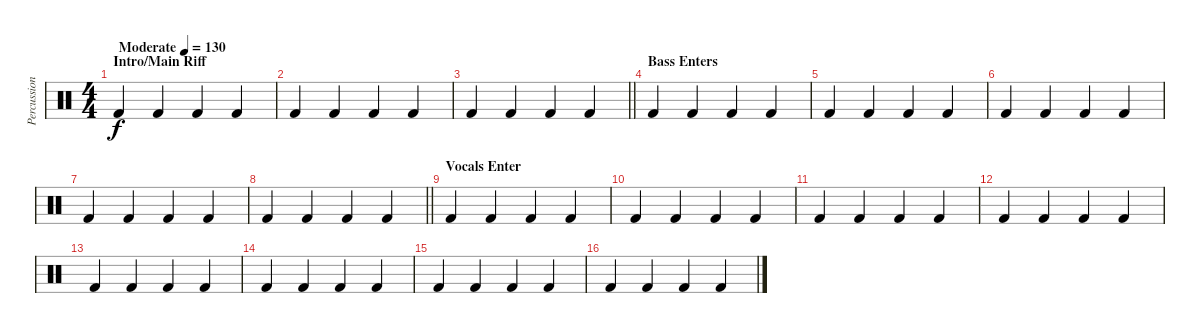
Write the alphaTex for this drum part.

\track ("Percussion" "Percussion") {instrument percussion}
\staff {score}
\articulation defaults
\ts (4 4)
\section ("" "Intro/Main Riff")
\tempo (130 "Moderate")
\clef neutral
\ks c "Kick (hit) 2".4{dy f} "Kick (hit) 2".4 "Kick (hit) 2".4 "Kick (hit) 2".4
|
"Kick (hit) 2".4 "Kick (hit) 2".4 "Kick (hit) 2".4 "Kick (hit) 2".4 |
\barLineRight lightlight "Kick (hit) 2".4 "Kick (hit) 2".4 "Kick (hit) 2".4 "Kick (hit) 2".4
|
\section ("" "Bass Enters")
"Kick (hit) 2".4 "Kick (hit) 2".4 "Kick (hit) 2".4 "Kick (hit) 2".4 |
"Kick (hit) 2".4 "Kick (hit) 2".4 "Kick (hit) 2".4 "Kick (hit) 2".4 |
"Kick (hit) 2".4 "Kick (hit) 2".4 "Kick (hit) 2".4 "Kick (hit) 2".4 |
"Kick (hit) 2".4 "Kick (hit) 2".4 "Kick (hit) 2".4 "Kick (hit) 2".4 |
\barLineRight lightlight "Kick (hit) 2".4 "Kick (hit) 2".4 "Kick (hit) 2".4 "Kick (hit) 2".4
|
\section ("" "Vocals Enter")
"Kick (hit) 2".4 "Kick (hit) 2".4 "Kick (hit) 2".4 "Kick (hit) 2".4 |
"Kick (hit) 2".4 "Kick (hit) 2".4 "Kick (hit) 2".4 "Kick (hit) 2".4 |
"Kick (hit) 2".4 "Kick (hit) 2".4 "Kick (hit) 2".4 "Kick (hit) 2".4 |
"Kick (hit) 2".4 "Kick (hit) 2".4 "Kick (hit) 2".4 "Kick (hit) 2".4 |
"Kick (hit) 2".4 "Kick (hit) 2".4 "Kick (hit) 2".4 "Kick (hit) 2".4 |
"Kick (hit) 2".4 "Kick (hit) 2".4 "Kick (hit) 2".4 "Kick (hit) 2".4 |
"Kick (hit) 2".4 "Kick (hit) 2".4 "Kick (hit) 2".4 "Kick (hit) 2".4 |
"Kick (hit) 2".4 "Kick (hit) 2".4 "Kick (hit) 2".4 "Kick (hit) 2".4
